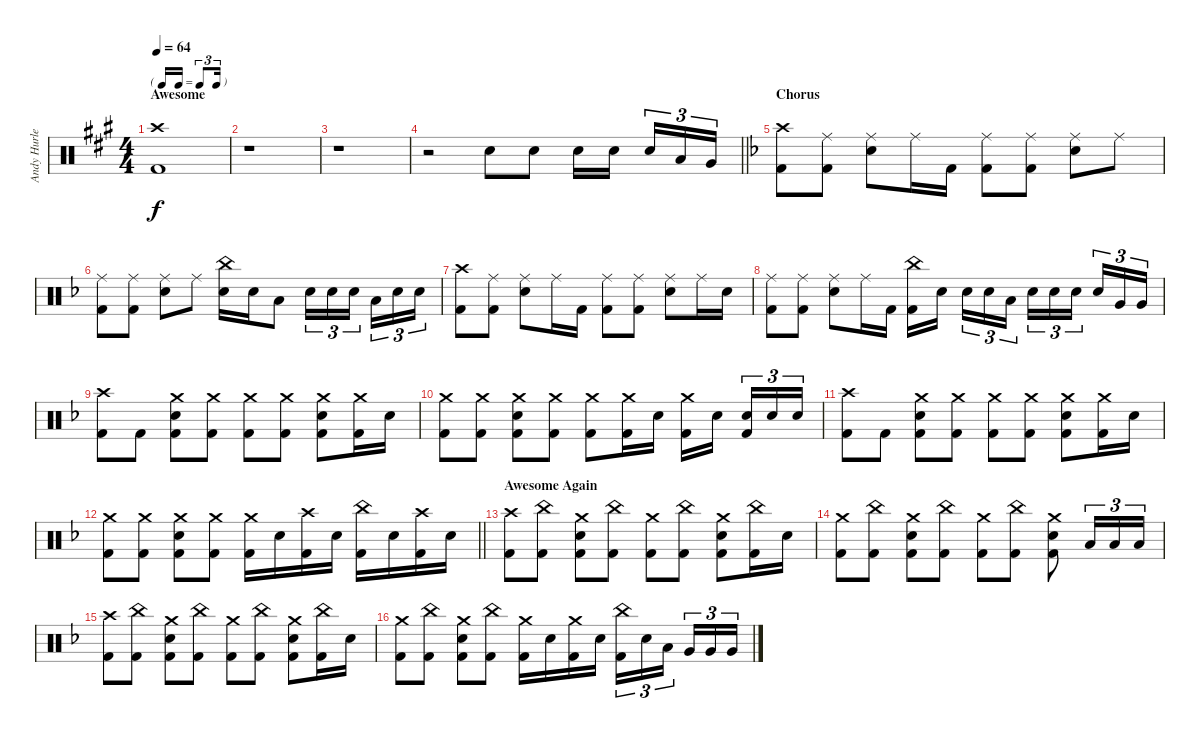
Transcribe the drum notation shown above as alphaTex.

\track ("Andy Hurley" "Andy Hurle") {instrument percussion}
\staff {score}
\articulation defaults
\ts (4 4)
\tf triplet16th
\section ("" "Awesome")
\tempo 64
\clef neutral
\ks a
("Crash high (hit)" "Kick (hit) 2").1{dy f} |
r.1 |
r.1 |
\barLineRight lightlight
r.2 "Snare (hit) 2".8 "Snare (hit) 2".8 "Snare (hit) 2".16 "Snare (hit) 2".16{beam splitsecondary} "Snare (hit) 2".16{tu (3 2)} "Low Tom (hit)".16{tu (3 2)} "Very Low Tom (hit)".16{tu (3 2)} |
\section ("" "Chorus")
\ks f
("Crash high (hit)" "Kick (hit) 2").8 ("Ride (middle)" "Kick (hit) 2").8 ("Ride (middle)" "Snare (hit) 2").8 "Ride (middle)".16 "Kick (hit) 2".16 ("Ride (middle)" "Kick (hit) 2").8 ("Ride (middle)" "Kick (hit) 2").8 ("Ride (middle)" "Snare (hit) 2").8 "Ride (middle)".8 |
("Ride (middle)" "Kick (hit) 2").8 ("Ride (middle)" "Kick (hit) 2").8 ("Ride (middle)" "Snare (hit) 2").8 "Ride (middle)".8 ("China (hit)" "Snare (hit) 2").16 "Snare (hit) 2".16 "Low Tom (hit)".8 "Snare (hit) 2".16{tu (3 2)} "Snare (hit) 2".16{tu (3 2)} "Snare (hit) 2".16{tu (3 2) beam splitsecondary} "Low Tom (hit)".16{tu (3 2)} "Snare (hit) 2".16{tu (3 2)} "Snare (hit) 2".16{tu (3 2)} |
("Crash high (hit)" "Kick (hit) 2").8 ("Ride (middle)" "Kick (hit) 2").8 ("Ride (middle)" "Snare (hit) 2").8 "Ride (middle)".16 "Kick (hit) 2".16 ("Ride (middle)" "Kick (hit) 2").8 ("Ride (middle)" "Kick (hit) 2").8 ("Ride (middle)" "Snare (hit) 2").8 "Ride (middle)".16 "Snare (hit) 2".16 |
("Ride (middle)" "Kick (hit) 2").8 ("Ride (middle)" "Kick (hit) 2").8 ("Ride (middle)" "Snare (hit) 2").8 "Ride (middle)".16 "Kick (hit) 2".16 ("China (hit)" "Kick (hit) 2").16 "Snare (hit) 2".16{beam splitsecondary} "Snare (hit) 2".16{tu (3 2)} "Snare (hit) 2".16{tu (3 2)} "Low Tom (hit)".16{tu (3 2)} "Snare (hit) 2".16{tu (3 2)} "Snare (hit) 2".16{tu (3 2)} "Snare (hit) 2".16{tu (3 2) beam splitsecondary} "Snare (hit) 2".16{tu (3 2)} "Very Low Tom (hit)".16{tu (3 2)} "Very Low Tom (hit)".16{tu (3 2)} |
("Crash high (hit)" "Kick (hit) 2").8 "Kick (hit) 2".8 ("Crash medium (hit)" "Snare (hit) 2" "Kick (hit) 2").8 ("Crash medium (hit)" "Kick (hit) 2").8 ("Crash medium (hit)" "Kick (hit) 2").8 ("Crash medium (hit)" "Kick (hit) 2").8 ("Crash medium (hit)" "Snare (hit) 2" "Kick (hit) 2").8 ("Crash medium (hit)" "Kick (hit) 2").16 "Snare (hit) 2".16 |
("Crash medium (hit)" "Kick (hit) 2").8 ("Crash medium (hit)" "Kick (hit) 2").8 ("Crash medium (hit)" "Snare (hit) 2" "Kick (hit) 2").8 ("Crash medium (hit)" "Kick (hit) 2").8 ("Crash medium (hit)" "Kick (hit) 2").8 ("Crash medium (hit)" "Kick (hit) 2").16 "Snare (hit) 2".16 ("Crash medium (hit)" "Kick (hit) 2").16 "Snare (hit) 2".16{beam splitsecondary} ("Snare (hit) 2" "Kick (hit) 2").16{tu (3 2)} "Snare (hit) 2".16{tu (3 2)} "Snare (hit) 2".16{tu (3 2)} |
("Crash high (hit)" "Kick (hit) 2").8 "Kick (hit) 2".8 ("Crash medium (hit)" "Snare (hit) 2" "Kick (hit) 2").8 ("Crash medium (hit)" "Kick (hit) 2").8 ("Crash medium (hit)" "Kick (hit) 2").8 ("Crash medium (hit)" "Kick (hit) 2").8 ("Crash medium (hit)" "Snare (hit) 2" "Kick (hit) 2").8 ("Crash medium (hit)" "Kick (hit) 2").16 "Snare (hit) 2".16 |
\barLineRight lightlight
("Crash medium (hit)" "Kick (hit) 2").8 ("Crash medium (hit)" "Kick (hit) 2").8 ("Crash medium (hit)" "Snare (hit) 2" "Kick (hit) 2").8 ("Crash medium (hit)" "Kick (hit) 2").8 ("Crash medium (hit)" "Kick (hit) 2").16 "Snare (hit) 2".16 ("Crash high (hit)" "Kick (hit) 2").16 "Snare (hit) 2".16 ("China (hit)" "Kick (hit) 2").16 "Snare (hit) 2".16 ("Crash high (hit)" "Kick (hit) 2").16 "Snare (hit) 2".16 |
\section ("" "Awesome Again")
("Crash high (hit)" "Kick (hit) 2").8 ("China (hit)" "Kick (hit) 2").8 ("Crash medium (hit)" "Snare (hit) 2" "Kick (hit) 2").8 ("China (hit)" "Kick (hit) 2").8 ("Crash medium (hit)" "Kick (hit) 2").8 ("China (hit)" "Kick (hit) 2").8 ("Crash medium (hit)" "Snare (hit) 2" "Kick (hit) 2").8 ("China (hit)" "Kick (hit) 2").16 "Snare (hit) 2".16 |
("Crash medium (hit)" "Kick (hit) 2").8 ("China (hit)" "Kick (hit) 2").8 ("Crash medium (hit)" "Snare (hit) 2" "Kick (hit) 2").8 ("China (hit)" "Kick (hit) 2").8 ("Crash medium (hit)" "Kick (hit) 2").8 ("China (hit)" "Kick (hit) 2").8 ("Crash medium (hit)" "Snare (hit) 2" "Kick (hit) 2").8 "Low Tom (hit)".16{tu (3 2)} "Low Tom (hit)".16{tu (3 2)} "Low Tom (hit)".16{tu (3 2)} |
("Crash high (hit)" "Kick (hit) 2").8 ("China (hit)" "Kick (hit) 2").8 ("Crash medium (hit)" "Snare (hit) 2" "Kick (hit) 2").8 ("China (hit)" "Kick (hit) 2").8 ("Crash medium (hit)" "Kick (hit) 2").8 ("China (hit)" "Kick (hit) 2").8 ("Crash medium (hit)" "Snare (hit) 2" "Kick (hit) 2").8 ("China (hit)" "Kick (hit) 2").16 "Snare (hit) 2".16 |
("Crash medium (hit)" "Kick (hit) 2").8 ("China (hit)" "Kick (hit) 2").8 ("Crash medium (hit)" "Snare (hit) 2" "Kick (hit) 2").8 ("China (hit)" "Kick (hit) 2").8 ("Crash medium (hit)" "Kick (hit) 2").16 "Snare (hit) 2".16 ("Crash medium (hit)" "Kick (hit) 2").16 "Snare (hit) 2".16 ("China (hit)" "Kick (hit) 2").16{tu (3 2)} "Snare (hit) 2".16{tu (3 2)} "Low Tom (hit)".16{tu (3 2) beam splitsecondary} "Very Low Tom (hit)".16{tu (3 2)} "Very Low Tom (hit)".16{tu (3 2)} "Very Low Tom (hit)".16{tu (3 2)}
